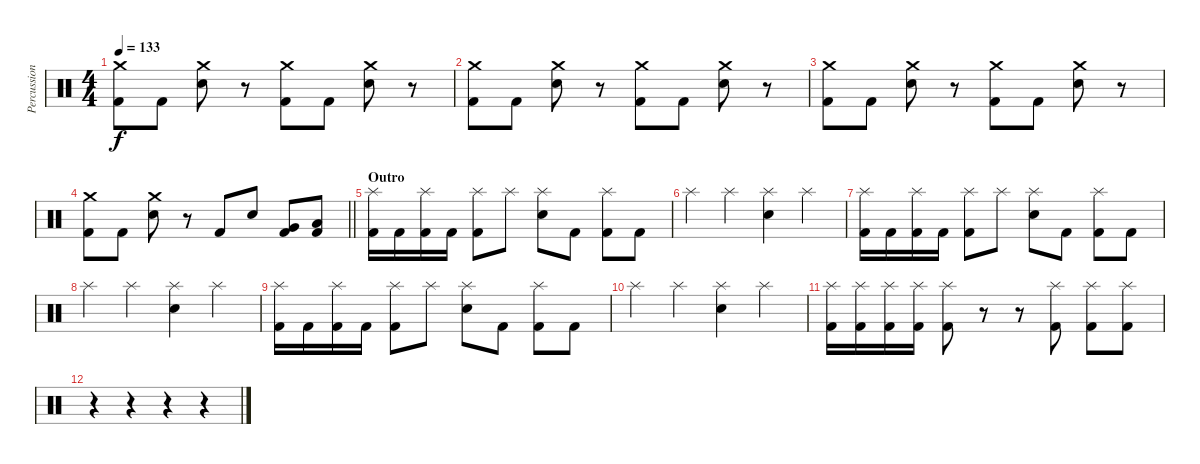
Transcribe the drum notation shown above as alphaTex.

\track ("Percussion" "Percussion") {instrument percussion}
\staff {score}
\articulation defaults
\ts (4 4)
\tempo 133
\clef neutral
\ks c
("Crash medium (hit)" "Kick (hit) 2").8{dy f} "Kick (hit) 2".8 ("Crash medium (hit)" "Snare (hit) 2").8 r.8 ("Crash medium (hit)" "Kick (hit) 2").8 "Kick (hit) 2".8 ("Crash medium (hit)" "Snare (hit) 2").8 r.8 |
("Crash medium (hit)" "Kick (hit) 2").8 "Kick (hit) 2".8 ("Crash medium (hit)" "Snare (hit) 2").8 r.8 ("Crash medium (hit)" "Kick (hit) 2").8 "Kick (hit) 2".8 ("Crash medium (hit)" "Snare (hit) 2").8 r.8 |
("Crash medium (hit)" "Kick (hit) 2").8 "Kick (hit) 2".8 ("Crash medium (hit)" "Snare (hit) 2").8 r.8 ("Crash medium (hit)" "Kick (hit) 2").8 "Kick (hit) 2".8 ("Crash medium (hit)" "Snare (hit) 2").8 r.8 |
\barLineRight lightlight
("Crash medium (hit)" "Kick (hit) 2").8 "Kick (hit) 2".8 ("Crash medium (hit)" "Snare (hit) 2").8 r.8 "Kick (hit) 2".8 "Snare (hit) 2".8 ("Very Low Tom (hit)" "Kick (hit) 2").8 ("Low Floor Tom (hit)" "Kick (hit) 2").8 |
\section ("" "Outro")
("Splash (hit)" "Kick (hit) 2").16 "Kick (hit) 2".16 ("Splash (hit)" "Kick (hit) 2").16 "Kick (hit) 2".16 ("Splash (hit)" "Kick (hit) 2").8 "Splash (hit)".8 ("Splash (hit)" "Snare (hit) 2").8 "Kick (hit) 2".8 ("Splash (hit)" "Kick (hit) 2").8 "Kick (hit) 2".8 |
"Splash (hit)".4 "Splash (hit)".4 ("Splash (hit)" "Snare (hit) 2").4 "Splash (hit)".4 |
("Splash (hit)" "Kick (hit) 2").16 "Kick (hit) 2".16 ("Splash (hit)" "Kick (hit) 2").16 "Kick (hit) 2".16 ("Splash (hit)" "Kick (hit) 2").8 "Splash (hit)".8 ("Splash (hit)" "Snare (hit) 2").8 "Kick (hit) 2".8 ("Splash (hit)" "Kick (hit) 2").8 "Kick (hit) 2".8 |
"Splash (hit)".4 "Splash (hit)".4 ("Splash (hit)" "Snare (hit) 2").4 "Splash (hit)".4 |
("Splash (hit)" "Kick (hit) 2").16 "Kick (hit) 2".16 ("Splash (hit)" "Kick (hit) 2").16 "Kick (hit) 2".16 ("Splash (hit)" "Kick (hit) 2").8 "Splash (hit)".8 ("Splash (hit)" "Snare (hit) 2").8 "Kick (hit) 2".8 ("Splash (hit)" "Kick (hit) 2").8 "Kick (hit) 2".8 |
"Splash (hit)".4 "Splash (hit)".4 ("Splash (hit)" "Snare (hit) 2").4 "Splash (hit)".4 |
("Splash (hit)" "Kick (hit) 2").16 ("Splash (hit)" "Kick (hit) 2").16 ("Splash (hit)" "Kick (hit) 2").16 ("Splash (hit)" "Kick (hit) 2").16 ("Splash (hit)" "Kick (hit) 2").8 r.8 r.8 ("Splash (hit)" "Kick (hit) 2").8 ("Splash (hit)" "Kick (hit) 2").8 ("Splash (hit)" "Kick (hit) 2").8 |
r.4 r.4 r.4 r.4
